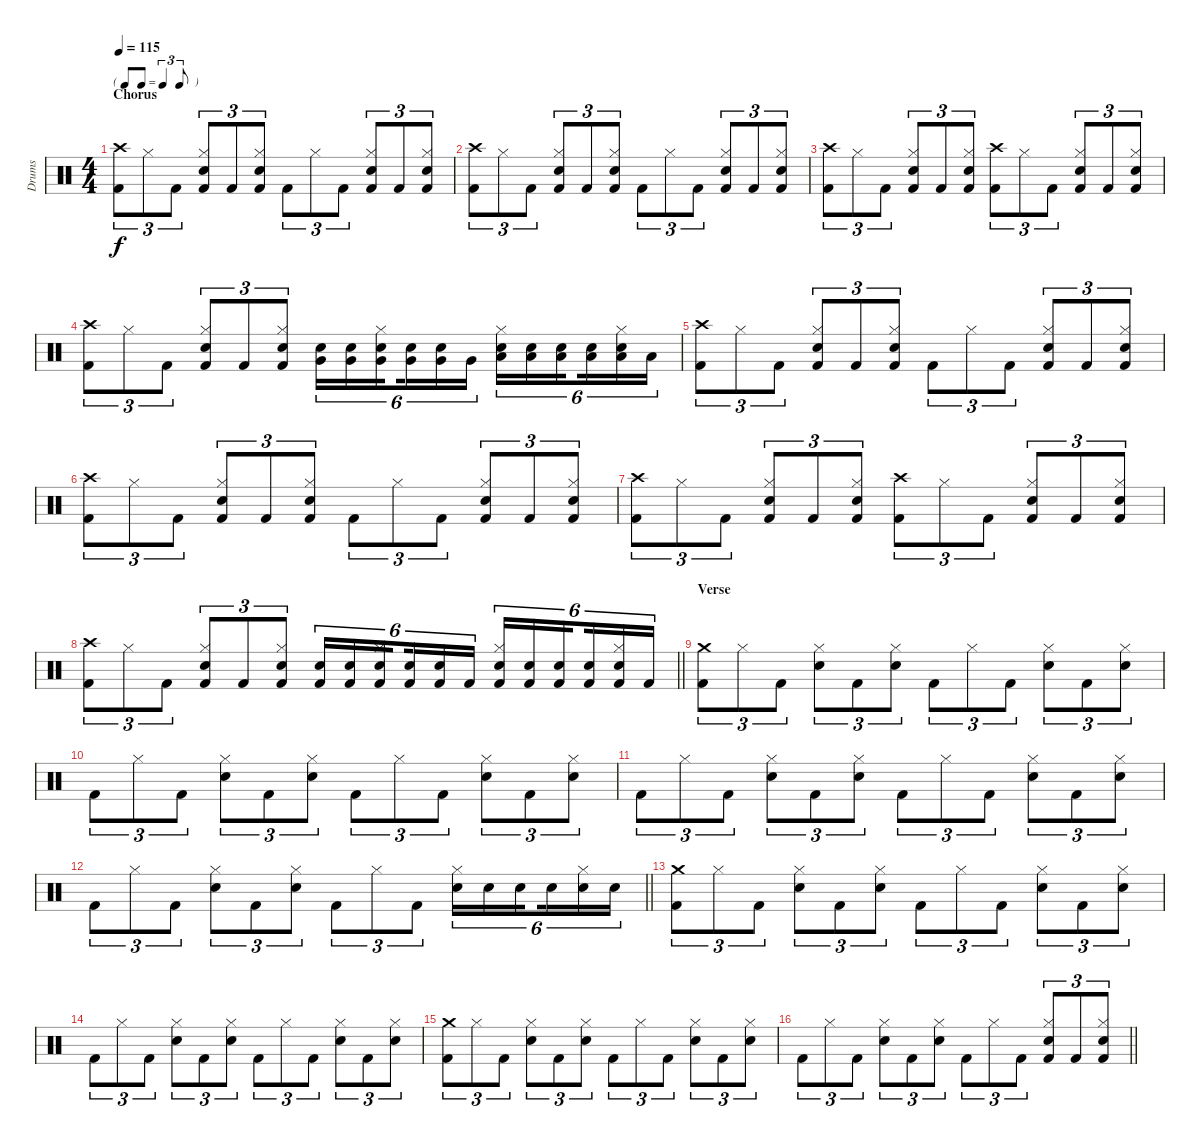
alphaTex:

\track ("Drums" "Drums") {instrument percussion}
\staff {score}
\articulation defaults
\ts (4 4)
\tf triplet8th
\section ("" "Chorus")
\tempo 115
\clef neutral
\ks c
("Crash high (hit)" "Kick (hit) 2").8{tu (3 2) dy f} "Hi-Hat (closed)".8{tu (3 2)} "Kick (hit) 2".8{tu (3 2)} ("Hi-Hat (closed)" "Snare (hit) 2" "Kick (hit) 2").8{tu (3 2)} "Kick (hit) 2".8{tu (3 2)} ("Hi-Hat (closed)" "Snare (hit) 2" "Kick (hit) 2").8{tu (3 2)} "Kick (hit) 2".8{tu (3 2)} "Hi-Hat (closed)".8{tu (3 2)} "Kick (hit) 2".8{tu (3 2)} ("Hi-Hat (closed)" "Snare (hit) 2" "Kick (hit) 2").8{tu (3 2)} "Kick (hit) 2".8{tu (3 2)} ("Hi-Hat (closed)" "Snare (hit) 2" "Kick (hit) 2").8{tu (3 2)} |
("Crash high (hit)" "Kick (hit) 2").8{tu (3 2)} "Hi-Hat (closed)".8{tu (3 2)} "Kick (hit) 2".8{tu (3 2)} ("Hi-Hat (closed)" "Snare (hit) 2" "Kick (hit) 2").8{tu (3 2)} "Kick (hit) 2".8{tu (3 2)} ("Hi-Hat (closed)" "Snare (hit) 2" "Kick (hit) 2").8{tu (3 2)} "Kick (hit) 2".8{tu (3 2)} "Hi-Hat (closed)".8{tu (3 2)} "Kick (hit) 2".8{tu (3 2)} ("Hi-Hat (closed)" "Snare (hit) 2" "Kick (hit) 2").8{tu (3 2)} "Kick (hit) 2".8{tu (3 2)} ("Hi-Hat (closed)" "Snare (hit) 2" "Kick (hit) 2").8{tu (3 2)} |
("Crash high (hit)" "Kick (hit) 2").8{tu (3 2)} "Hi-Hat (closed)".8{tu (3 2)} "Kick (hit) 2".8{tu (3 2)} ("Hi-Hat (closed)" "Snare (hit) 2" "Kick (hit) 2").8{tu (3 2)} "Kick (hit) 2".8{tu (3 2)} ("Hi-Hat (closed)" "Snare (hit) 2" "Kick (hit) 2").8{tu (3 2)} ("Crash high (hit)" "Kick (hit) 2").8{tu (3 2)} "Hi-Hat (closed)".8{tu (3 2)} "Kick (hit) 2".8{tu (3 2)} ("Hi-Hat (closed)" "Snare (hit) 2" "Kick (hit) 2").8{tu (3 2)} "Kick (hit) 2".8{tu (3 2)} ("Hi-Hat (closed)" "Snare (hit) 2" "Kick (hit) 2").8{tu (3 2)} |
("Crash high (hit)" "Kick (hit) 2").8{tu (3 2)} "Hi-Hat (closed)".8{tu (3 2)} "Kick (hit) 2".8{tu (3 2)} ("Hi-Hat (closed)" "Snare (hit) 2" "Kick (hit) 2").8{tu (3 2)} "Kick (hit) 2".8{tu (3 2)} ("Hi-Hat (closed)" "Snare (hit) 2" "Kick (hit) 2").8{tu (3 2)} ("Very Low Tom (hit)" "Electric Snare (hit)").16{tu (6 4)} ("Very Low Tom (hit)" "Electric Snare (hit)").16{tu (6 4)} ("Hi-Hat (closed)" "Very Low Tom (hit)" "Electric Snare (hit)").16{tu (6 4) beam splitsecondary} ("Very Low Tom (hit)" "Electric Snare (hit)").16{tu (6 4)} ("Very Low Tom (hit)" "Electric Snare (hit)").16{tu (6 4)} "Very Low Tom (hit)".16{tu (6 4)} ("Hi-Hat (closed)" "Low Floor Tom (hit)" "Electric Snare (hit)").16{tu (6 4)} ("Low Floor Tom (hit)" "Electric Snare (hit)").16{tu (6 4)} ("Low Floor Tom (hit)" "Electric Snare (hit)").16{tu (6 4) beam splitsecondary} ("Low Floor Tom (hit)" "Electric Snare (hit)").16{tu (6 4)} ("Hi-Hat (closed)" "Low Floor Tom (hit)" "Electric Snare (hit)").16{tu (6 4)} "Low Floor Tom (hit)".16{tu (6 4)} |
("Crash high (hit)" "Kick (hit) 2").8{tu (3 2)} "Hi-Hat (closed)".8{tu (3 2)} "Kick (hit) 2".8{tu (3 2)} ("Hi-Hat (closed)" "Snare (hit) 2" "Kick (hit) 2").8{tu (3 2)} "Kick (hit) 2".8{tu (3 2)} ("Hi-Hat (closed)" "Snare (hit) 2" "Kick (hit) 2").8{tu (3 2)} "Kick (hit) 2".8{tu (3 2)} "Hi-Hat (closed)".8{tu (3 2)} "Kick (hit) 2".8{tu (3 2)} ("Hi-Hat (closed)" "Snare (hit) 2" "Kick (hit) 2").8{tu (3 2)} "Kick (hit) 2".8{tu (3 2)} ("Hi-Hat (closed)" "Snare (hit) 2" "Kick (hit) 2").8{tu (3 2)} |
("Crash high (hit)" "Kick (hit) 2").8{tu (3 2)} "Hi-Hat (closed)".8{tu (3 2)} "Kick (hit) 2".8{tu (3 2)} ("Hi-Hat (closed)" "Snare (hit) 2" "Kick (hit) 2").8{tu (3 2)} "Kick (hit) 2".8{tu (3 2)} ("Hi-Hat (closed)" "Snare (hit) 2" "Kick (hit) 2").8{tu (3 2)} "Kick (hit) 2".8{tu (3 2)} "Hi-Hat (closed)".8{tu (3 2)} "Kick (hit) 2".8{tu (3 2)} ("Hi-Hat (closed)" "Snare (hit) 2" "Kick (hit) 2").8{tu (3 2)} "Kick (hit) 2".8{tu (3 2)} ("Hi-Hat (closed)" "Snare (hit) 2" "Kick (hit) 2").8{tu (3 2)} |
("Crash high (hit)" "Kick (hit) 2").8{tu (3 2)} "Hi-Hat (closed)".8{tu (3 2)} "Kick (hit) 2".8{tu (3 2)} ("Hi-Hat (closed)" "Snare (hit) 2" "Kick (hit) 2").8{tu (3 2)} "Kick (hit) 2".8{tu (3 2)} ("Hi-Hat (closed)" "Snare (hit) 2" "Kick (hit) 2").8{tu (3 2)} ("Crash high (hit)" "Kick (hit) 2").8{tu (3 2)} "Hi-Hat (closed)".8{tu (3 2)} "Kick (hit) 2".8{tu (3 2)} ("Hi-Hat (closed)" "Snare (hit) 2" "Kick (hit) 2").8{tu (3 2)} "Kick (hit) 2".8{tu (3 2)} ("Hi-Hat (closed)" "Snare (hit) 2" "Kick (hit) 2").8{tu (3 2)} |
\barLineRight lightlight
("Crash high (hit)" "Kick (hit) 2").8{tu (3 2)} "Hi-Hat (closed)".8{tu (3 2)} "Kick (hit) 2".8{tu (3 2)} ("Hi-Hat (closed)" "Snare (hit) 2" "Kick (hit) 2").8{tu (3 2)} "Kick (hit) 2".8{tu (3 2)} ("Hi-Hat (closed)" "Snare (hit) 2" "Kick (hit) 2").8{tu (3 2)} ("Electric Snare (hit)" "Kick (hit) 2").16{tu (6 4)} ("Electric Snare (hit)" "Kick (hit) 2").16{tu (6 4)} ("Hi-Hat (closed)" "Electric Snare (hit)" "Kick (hit) 2").16{tu (6 4) beam splitsecondary} ("Electric Snare (hit)" "Kick (hit) 2").16{tu (6 4)} ("Electric Snare (hit)" "Kick (hit) 2").16{tu (6 4)} "Kick (hit) 2".16{tu (6 4)} ("Hi-Hat (closed)" "Electric Snare (hit)" "Kick (hit) 2").16{tu (6 4)} ("Electric Snare (hit)" "Kick (hit) 2").16{tu (6 4)} ("Electric Snare (hit)" "Kick (hit) 2").16{tu (6 4) beam splitsecondary} ("Electric Snare (hit)" "Kick (hit) 2").16{tu (6 4)} ("Hi-Hat (closed)" "Electric Snare (hit)" "Kick (hit) 2").16{tu (6 4)} "Kick (hit) 2".16{tu (6 4)} |
\section ("" "Verse")
("Crash medium (hit)" "Kick (hit) 2").8{tu (3 2)} "Hi-Hat (closed)".8{tu (3 2)} "Kick (hit) 2".8{tu (3 2)} ("Hi-Hat (closed)" "Snare (hit) 2").8{tu (3 2)} "Kick (hit) 2".8{tu (3 2)} ("Hi-Hat (closed)" "Snare (hit) 2").8{tu (3 2)} "Kick (hit) 2".8{tu (3 2)} "Hi-Hat (closed)".8{tu (3 2)} "Kick (hit) 2".8{tu (3 2)} ("Hi-Hat (closed)" "Snare (hit) 2").8{tu (3 2)} "Kick (hit) 2".8{tu (3 2)} ("Hi-Hat (closed)" "Snare (hit) 2").8{tu (3 2)} |
"Kick (hit) 2".8{tu (3 2)} "Hi-Hat (closed)".8{tu (3 2)} "Kick (hit) 2".8{tu (3 2)} ("Hi-Hat (closed)" "Snare (hit) 2").8{tu (3 2)} "Kick (hit) 2".8{tu (3 2)} ("Hi-Hat (closed)" "Snare (hit) 2").8{tu (3 2)} "Kick (hit) 2".8{tu (3 2)} "Hi-Hat (closed)".8{tu (3 2)} "Kick (hit) 2".8{tu (3 2)} ("Hi-Hat (closed)" "Snare (hit) 2").8{tu (3 2)} "Kick (hit) 2".8{tu (3 2)} ("Hi-Hat (closed)" "Snare (hit) 2").8{tu (3 2)} |
"Kick (hit) 2".8{tu (3 2)} "Hi-Hat (closed)".8{tu (3 2)} "Kick (hit) 2".8{tu (3 2)} ("Hi-Hat (closed)" "Snare (hit) 2").8{tu (3 2)} "Kick (hit) 2".8{tu (3 2)} ("Hi-Hat (closed)" "Snare (hit) 2").8{tu (3 2)} "Kick (hit) 2".8{tu (3 2)} "Hi-Hat (closed)".8{tu (3 2)} "Kick (hit) 2".8{tu (3 2)} ("Hi-Hat (closed)" "Snare (hit) 2").8{tu (3 2)} "Kick (hit) 2".8{tu (3 2)} ("Hi-Hat (closed)" "Snare (hit) 2").8{tu (3 2)} |
\barLineRight lightlight "Kick (hit) 2".8{tu (3 2)} "Hi-Hat (closed)".8{tu (3 2)} "Kick (hit) 2".8{tu (3 2)}
("Hi-Hat (closed)" "Snare (hit) 2").8{tu (3 2)} "Kick (hit) 2".8{tu (3 2)} ("Hi-Hat (closed)" "Snare (hit) 2").8{tu (3 2)} "Kick (hit) 2".8{tu (3 2)} "Hi-Hat (closed)".8{tu (3 2)} "Kick (hit) 2".8{tu (3 2)} ("Hi-Hat (closed)" "Snare (hit) 2").16{tu (6 4)} "Snare (hit) 2".16{tu (6 4)} "Snare (hit) 2".16{tu (6 4) beam splitsecondary} "Snare (hit) 2".16{tu (6 4)} ("Hi-Hat (closed)" "Snare (hit) 2").16{tu (6 4)} "Snare (hit) 2".16{tu (6 4)} |
("Crash medium (hit)" "Kick (hit) 2").8{tu (3 2)} "Hi-Hat (closed)".8{tu (3 2)} "Kick (hit) 2".8{tu (3 2)} ("Hi-Hat (closed)" "Snare (hit) 2").8{tu (3 2)} "Kick (hit) 2".8{tu (3 2)} ("Hi-Hat (closed)" "Snare (hit) 2").8{tu (3 2)} "Kick (hit) 2".8{tu (3 2)} "Hi-Hat (closed)".8{tu (3 2)} "Kick (hit) 2".8{tu (3 2)} ("Hi-Hat (closed)" "Snare (hit) 2").8{tu (3 2)} "Kick (hit) 2".8{tu (3 2)} ("Hi-Hat (closed)" "Snare (hit) 2").8{tu (3 2)} |
"Kick (hit) 2".8{tu (3 2)} "Hi-Hat (closed)".8{tu (3 2)} "Kick (hit) 2".8{tu (3 2)} ("Hi-Hat (closed)" "Snare (hit) 2").8{tu (3 2)} "Kick (hit) 2".8{tu (3 2)} ("Hi-Hat (closed)" "Snare (hit) 2").8{tu (3 2)} "Kick (hit) 2".8{tu (3 2)} "Hi-Hat (closed)".8{tu (3 2)} "Kick (hit) 2".8{tu (3 2)} ("Hi-Hat (closed)" "Snare (hit) 2").8{tu (3 2)} "Kick (hit) 2".8{tu (3 2)} ("Hi-Hat (closed)" "Snare (hit) 2").8{tu (3 2)} |
("Crash medium (hit)" "Kick (hit) 2").8{tu (3 2)} "Hi-Hat (closed)".8{tu (3 2)} "Kick (hit) 2".8{tu (3 2)} ("Hi-Hat (closed)" "Snare (hit) 2").8{tu (3 2)} "Kick (hit) 2".8{tu (3 2)} ("Hi-Hat (closed)" "Snare (hit) 2").8{tu (3 2)} "Kick (hit) 2".8{tu (3 2)} "Hi-Hat (closed)".8{tu (3 2)} "Kick (hit) 2".8{tu (3 2)} ("Hi-Hat (closed)" "Snare (hit) 2").8{tu (3 2)} "Kick (hit) 2".8{tu (3 2)} ("Hi-Hat (closed)" "Snare (hit) 2").8{tu (3 2)} |
\barLineRight lightlight "Kick (hit) 2".8{tu (3 2)} "Hi-Hat (closed)".8{tu (3 2)} "Kick (hit) 2".8{tu (3 2)}
("Hi-Hat (closed)" "Snare (hit) 2").8{tu (3 2)} "Kick (hit) 2".8{tu (3 2)} ("Hi-Hat (closed)" "Snare (hit) 2").8{tu (3 2)} "Kick (hit) 2".8{tu (3 2)} "Hi-Hat (closed)".8{tu (3 2)} "Kick (hit) 2".8{tu (3 2)} ("Hi-Hat (closed)" "Snare (hit) 2" "Kick (hit) 2").8{tu (3 2)} "Kick (hit) 2".8{tu (3 2)} ("Hi-Hat (closed)" "Snare (hit) 2" "Kick (hit) 2").8{tu (3 2)}
